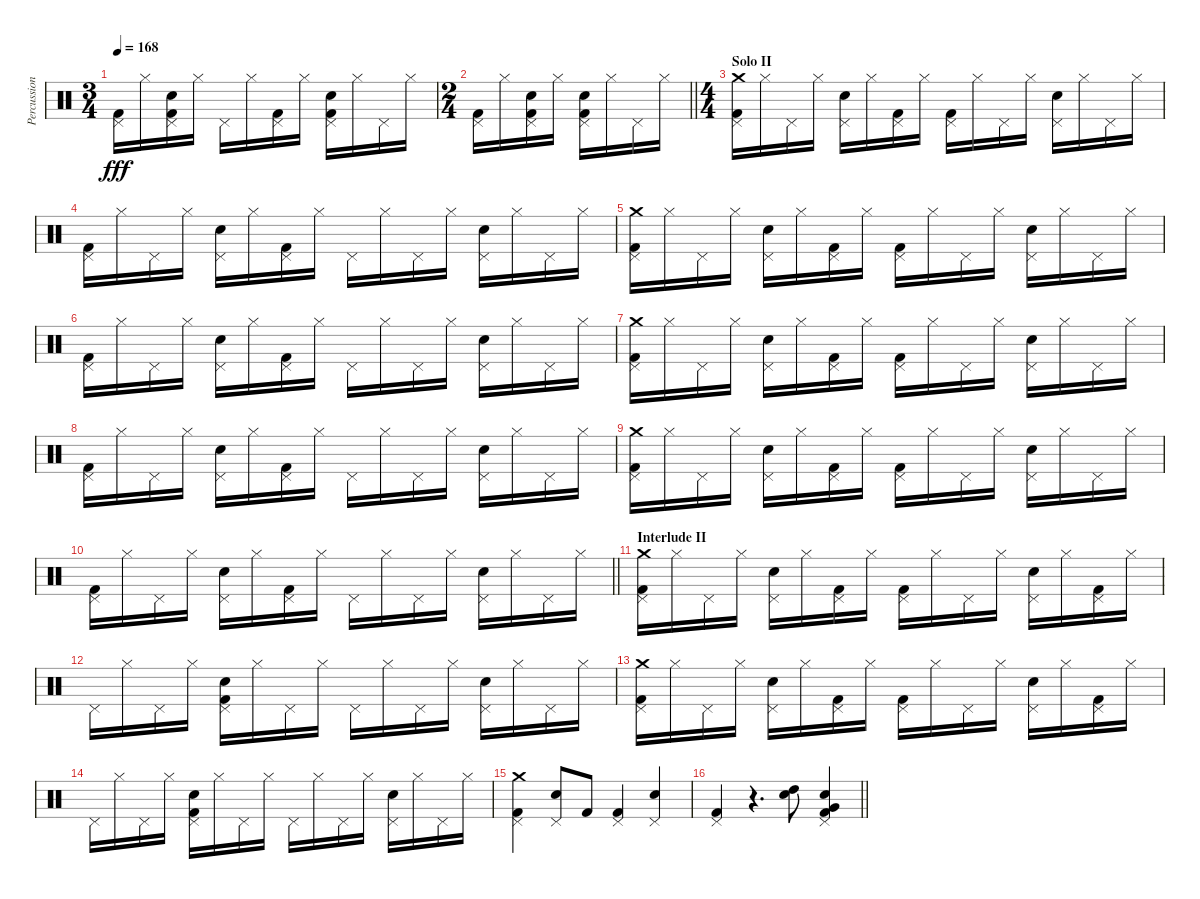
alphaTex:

\track ("Percussion" "Percussion") {instrument percussion}
\staff {score}
\articulation defaults
\ts (3 4)
\tempo 168
\clef neutral
\ks c
("Kick (hit) 2" "Pedal Hi-Hat (hit)").16{dy fff} "Hi-Hat (closed)".16 ("Kick (hit) 2" "Pedal Hi-Hat (hit)" "Snare (hit) 2").16 "Hi-Hat (closed)".16 "Pedal Hi-Hat (hit)".16 "Hi-Hat (closed)".16 ("Kick (hit) 2" "Pedal Hi-Hat (hit)").16 "Hi-Hat (closed)".16 ("Kick (hit) 2" "Pedal Hi-Hat (hit)" "Snare (hit) 2").16 "Hi-Hat (closed)".16 "Pedal Hi-Hat (hit)".16 "Hi-Hat (closed)".16 |
\ts (2 4)
\barLineRight lightlight
("Kick (hit) 2" "Pedal Hi-Hat (hit)").16 "Hi-Hat (closed)".16 ("Kick (hit) 2" "Pedal Hi-Hat (hit)" "Snare (hit) 2").16 "Hi-Hat (closed)".16 ("Kick (hit) 2" "Pedal Hi-Hat (hit)" "Snare (hit) 2").16 "Hi-Hat (closed)".16 "Pedal Hi-Hat (hit)".16 "Hi-Hat (closed)".16 |
\ts (4 4)
\section ("" "Solo II")
("Kick (hit) 2" "Crash medium (hit)" "Pedal Hi-Hat (hit)").16 "Hi-Hat (closed)".16 "Pedal Hi-Hat (hit)".16 "Hi-Hat (closed)".16 ("Pedal Hi-Hat (hit)" "Snare (hit) 2").16 "Hi-Hat (closed)".16 ("Kick (hit) 2" "Pedal Hi-Hat (hit)").16 "Hi-Hat (closed)".16 ("Kick (hit) 2" "Pedal Hi-Hat (hit)").16 "Hi-Hat (closed)".16 "Pedal Hi-Hat (hit)".16 "Hi-Hat (closed)".16 ("Pedal Hi-Hat (hit)" "Snare (hit) 2").16 "Hi-Hat (closed)".16 "Pedal Hi-Hat (hit)".16 "Hi-Hat (closed)".16 |
("Kick (hit) 2" "Pedal Hi-Hat (hit)").16 "Hi-Hat (closed)".16 "Pedal Hi-Hat (hit)".16 "Hi-Hat (closed)".16 ("Pedal Hi-Hat (hit)" "Snare (hit) 2").16 "Hi-Hat (closed)".16 ("Kick (hit) 2" "Pedal Hi-Hat (hit)").16 "Hi-Hat (closed)".16 "Pedal Hi-Hat (hit)".16 "Hi-Hat (closed)".16 "Pedal Hi-Hat (hit)".16 "Hi-Hat (closed)".16 ("Pedal Hi-Hat (hit)" "Snare (hit) 2").16 "Hi-Hat (closed)".16 "Pedal Hi-Hat (hit)".16 "Hi-Hat (closed)".16 |
("Kick (hit) 2" "Crash medium (hit)" "Pedal Hi-Hat (hit)").16 "Hi-Hat (closed)".16 "Pedal Hi-Hat (hit)".16 "Hi-Hat (closed)".16 ("Pedal Hi-Hat (hit)" "Snare (hit) 2").16 "Hi-Hat (closed)".16 ("Kick (hit) 2" "Pedal Hi-Hat (hit)").16 "Hi-Hat (closed)".16 ("Kick (hit) 2" "Pedal Hi-Hat (hit)").16 "Hi-Hat (closed)".16 "Pedal Hi-Hat (hit)".16 "Hi-Hat (closed)".16 ("Pedal Hi-Hat (hit)" "Snare (hit) 2").16 "Hi-Hat (closed)".16 "Pedal Hi-Hat (hit)".16 "Hi-Hat (closed)".16 |
("Kick (hit) 2" "Pedal Hi-Hat (hit)").16 "Hi-Hat (closed)".16 "Pedal Hi-Hat (hit)".16 "Hi-Hat (closed)".16 ("Pedal Hi-Hat (hit)" "Snare (hit) 2").16 "Hi-Hat (closed)".16 ("Kick (hit) 2" "Pedal Hi-Hat (hit)").16 "Hi-Hat (closed)".16 "Pedal Hi-Hat (hit)".16 "Hi-Hat (closed)".16 "Pedal Hi-Hat (hit)".16 "Hi-Hat (closed)".16 ("Pedal Hi-Hat (hit)" "Snare (hit) 2").16 "Hi-Hat (closed)".16 "Pedal Hi-Hat (hit)".16 "Hi-Hat (closed)".16 |
("Kick (hit) 2" "Crash medium (hit)" "Pedal Hi-Hat (hit)").16 "Hi-Hat (closed)".16 "Pedal Hi-Hat (hit)".16 "Hi-Hat (closed)".16 ("Pedal Hi-Hat (hit)" "Snare (hit) 2").16 "Hi-Hat (closed)".16 ("Kick (hit) 2" "Pedal Hi-Hat (hit)").16 "Hi-Hat (closed)".16 ("Kick (hit) 2" "Pedal Hi-Hat (hit)").16 "Hi-Hat (closed)".16 "Pedal Hi-Hat (hit)".16 "Hi-Hat (closed)".16 ("Pedal Hi-Hat (hit)" "Snare (hit) 2").16 "Hi-Hat (closed)".16 "Pedal Hi-Hat (hit)".16 "Hi-Hat (closed)".16 |
("Kick (hit) 2" "Pedal Hi-Hat (hit)").16 "Hi-Hat (closed)".16 "Pedal Hi-Hat (hit)".16 "Hi-Hat (closed)".16 ("Pedal Hi-Hat (hit)" "Snare (hit) 2").16 "Hi-Hat (closed)".16 ("Kick (hit) 2" "Pedal Hi-Hat (hit)").16 "Hi-Hat (closed)".16 "Pedal Hi-Hat (hit)".16 "Hi-Hat (closed)".16 "Pedal Hi-Hat (hit)".16 "Hi-Hat (closed)".16 ("Pedal Hi-Hat (hit)" "Snare (hit) 2").16 "Hi-Hat (closed)".16 "Pedal Hi-Hat (hit)".16 "Hi-Hat (closed)".16 |
("Kick (hit) 2" "Crash medium (hit)" "Pedal Hi-Hat (hit)").16 "Hi-Hat (closed)".16 "Pedal Hi-Hat (hit)".16 "Hi-Hat (closed)".16 ("Pedal Hi-Hat (hit)" "Snare (hit) 2").16 "Hi-Hat (closed)".16 ("Kick (hit) 2" "Pedal Hi-Hat (hit)").16 "Hi-Hat (closed)".16 ("Kick (hit) 2" "Pedal Hi-Hat (hit)").16 "Hi-Hat (closed)".16 "Pedal Hi-Hat (hit)".16 "Hi-Hat (closed)".16 ("Pedal Hi-Hat (hit)" "Snare (hit) 2").16 "Hi-Hat (closed)".16 "Pedal Hi-Hat (hit)".16 "Hi-Hat (closed)".16 |
\barLineRight lightlight
("Kick (hit) 2" "Pedal Hi-Hat (hit)").16 "Hi-Hat (closed)".16 "Pedal Hi-Hat (hit)".16 "Hi-Hat (closed)".16 ("Pedal Hi-Hat (hit)" "Snare (hit) 2").16 "Hi-Hat (closed)".16 ("Kick (hit) 2" "Pedal Hi-Hat (hit)").16 "Hi-Hat (closed)".16 "Pedal Hi-Hat (hit)".16 "Hi-Hat (closed)".16 "Pedal Hi-Hat (hit)".16 "Hi-Hat (closed)".16 ("Pedal Hi-Hat (hit)" "Snare (hit) 2").16 "Hi-Hat (closed)".16 "Pedal Hi-Hat (hit)".16 "Hi-Hat (closed)".16 |
\section ("" "Interlude II")
("Kick (hit) 2" "Crash medium (hit)" "Pedal Hi-Hat (hit)").16 "Hi-Hat (closed)".16 "Pedal Hi-Hat (hit)".16 "Hi-Hat (closed)".16 ("Pedal Hi-Hat (hit)" "Snare (hit) 2").16 "Hi-Hat (closed)".16 ("Kick (hit) 2" "Pedal Hi-Hat (hit)").16 "Hi-Hat (closed)".16 ("Kick (hit) 2" "Pedal Hi-Hat (hit)").16 "Hi-Hat (closed)".16 "Pedal Hi-Hat (hit)".16 "Hi-Hat (closed)".16 ("Pedal Hi-Hat (hit)" "Snare (hit) 2").16 "Hi-Hat (closed)".16 ("Kick (hit) 2" "Pedal Hi-Hat (hit)").16 "Hi-Hat (closed)".16 |
"Pedal Hi-Hat (hit)".16 "Hi-Hat (closed)".16 "Pedal Hi-Hat (hit)".16 "Hi-Hat (closed)".16 ("Kick (hit) 2" "Pedal Hi-Hat (hit)" "Snare (hit) 2").16 "Hi-Hat (closed)".16 "Pedal Hi-Hat (hit)".16 "Hi-Hat (closed)".16 "Pedal Hi-Hat (hit)".16 "Hi-Hat (closed)".16 "Pedal Hi-Hat (hit)".16 "Hi-Hat (closed)".16 ("Pedal Hi-Hat (hit)" "Snare (hit) 2").16 "Hi-Hat (closed)".16 "Pedal Hi-Hat (hit)".16 "Hi-Hat (closed)".16 |
("Kick (hit) 2" "Crash medium (hit)" "Pedal Hi-Hat (hit)").16 "Hi-Hat (closed)".16 "Pedal Hi-Hat (hit)".16 "Hi-Hat (closed)".16 ("Pedal Hi-Hat (hit)" "Snare (hit) 2").16 "Hi-Hat (closed)".16 ("Kick (hit) 2" "Pedal Hi-Hat (hit)").16 "Hi-Hat (closed)".16 ("Kick (hit) 2" "Pedal Hi-Hat (hit)").16 "Hi-Hat (closed)".16 "Pedal Hi-Hat (hit)".16 "Hi-Hat (closed)".16 ("Pedal Hi-Hat (hit)" "Snare (hit) 2").16 "Hi-Hat (closed)".16 ("Kick (hit) 2" "Pedal Hi-Hat (hit)").16 "Hi-Hat (closed)".16 |
"Pedal Hi-Hat (hit)".16 "Hi-Hat (closed)".16 "Pedal Hi-Hat (hit)".16 "Hi-Hat (closed)".16 ("Kick (hit) 2" "Pedal Hi-Hat (hit)" "Snare (hit) 2").16 "Hi-Hat (closed)".16 "Pedal Hi-Hat (hit)".16 "Hi-Hat (closed)".16 "Pedal Hi-Hat (hit)".16 "Hi-Hat (closed)".16 "Pedal Hi-Hat (hit)".16 "Hi-Hat (closed)".16 ("Pedal Hi-Hat (hit)" "Snare (hit) 2").16 "Hi-Hat (closed)".16 "Pedal Hi-Hat (hit)".16 "Hi-Hat (closed)".16 |
("Kick (hit) 2" "Crash medium (hit)" "Pedal Hi-Hat (hit)").4 ("Pedal Hi-Hat (hit)" "Snare (hit) 2").8 "Kick (hit) 2".8 ("Kick (hit) 2" "Pedal Hi-Hat (hit)").4 ("Pedal Hi-Hat (hit)" "Snare (hit) 2").4 |
\barLineRight lightlight
("Kick (hit) 2" "Pedal Hi-Hat (hit)").4 r.4{d} ("High Tom (hit)" "Snare (hit) 2").8 ("Kick (hit) 2" "Very Low Tom (hit)" "Pedal Hi-Hat (hit)" "Snare (hit) 2").4
